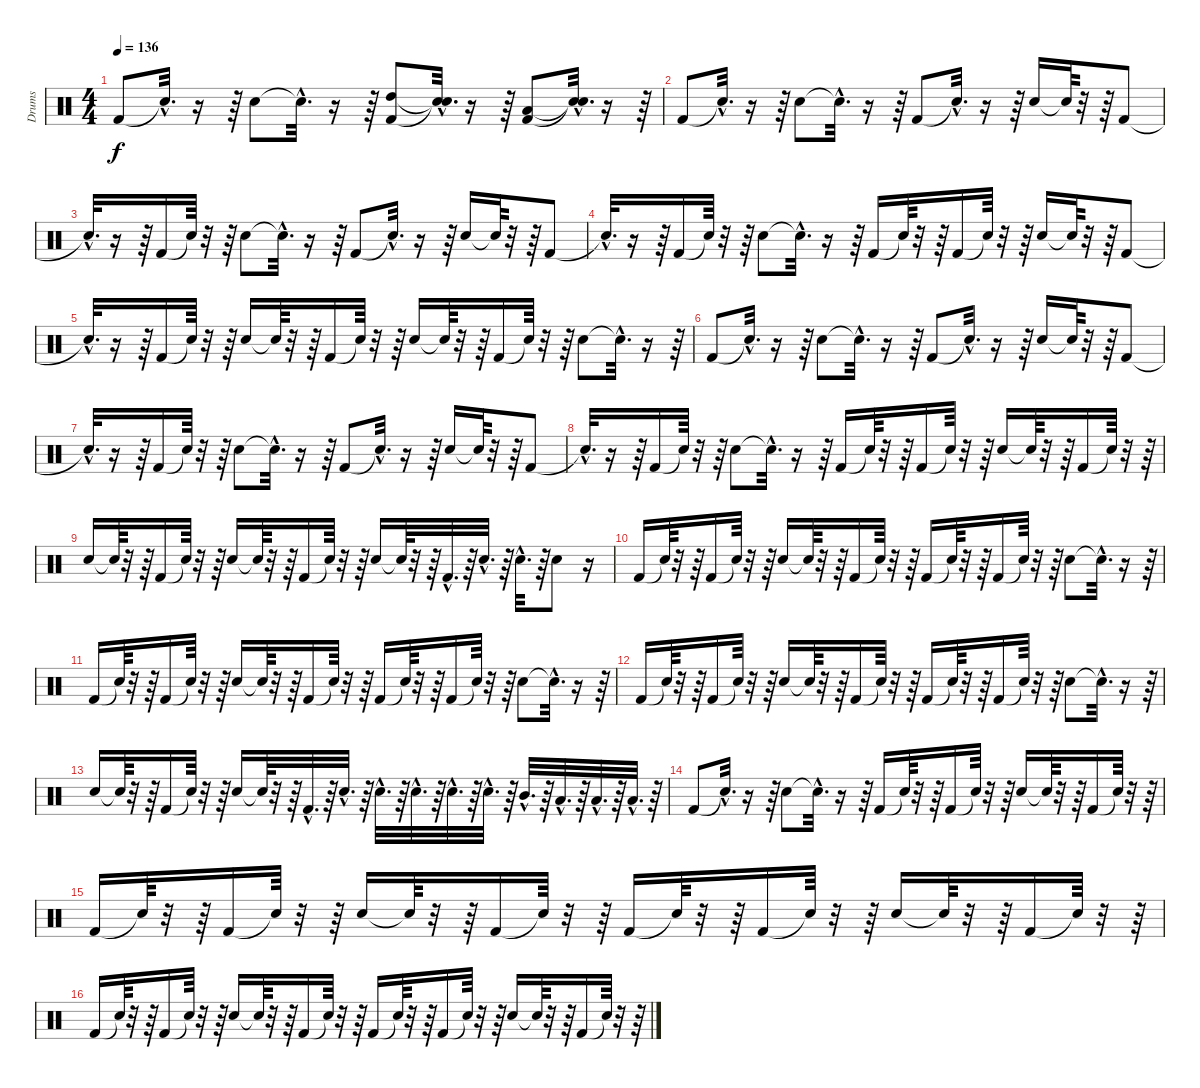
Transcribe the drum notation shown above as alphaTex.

\track ("Drums" "Drums") {instrument percussion}
\staff {score}
\articulation defaults
\ts (4 4)
\tempo 136
\clef neutral
\ks c "Kick (hit) 2".8{dy f} "Snare (hit)"{hac t}.32{d}
r.16 r.64 "Snare (hit) 2".8 "Snare (hit)"{hac t}.32{d} r.16 r.64 ("Kick (hit) 2" "High Tom (hit)").8 ("Snare (hit)"{hac t} "Snare (hit)"{hac t}).32{d} r.16 r.64 ("Kick (hit) 2" "Low Tom (hit)").8 ("Snare (hit)"{hac t} "Snare (hit)"{hac t}).32{d} r.16 r.64 |
"Kick (hit) 2".8 "Snare (hit)"{hac t}.32{d} r.16 r.64 "Snare (hit) 2".8 "Snare (hit)"{hac t}.32{d} r.16 r.64 "Kick (hit) 2".8 "Snare (hit)"{hac t}.32{d} r.16 r.64 "Snare (hit) 2".16 "Snare (hit)"{t}.64 r.32 r.64 "Kick (hit) 2".8 |
"Snare (hit)"{hac t}.32{d} r.16 r.64 "Kick (hit) 2".16 "Snare (hit)"{t}.64 r.32 r.64 "Snare (hit) 2".8 "Snare (hit)"{hac t}.32{d} r.16 r.64 "Kick (hit) 2".8 "Snare (hit)"{hac t}.32{d} r.16 r.64 "Snare (hit) 2".16 "Snare (hit)"{t}.64 r.32 r.64 "Kick (hit) 2".8 |
"Snare (hit)"{hac t}.32{d} r.16 r.64 "Kick (hit) 2".16 "Snare (hit)"{t}.64 r.32 r.64 "Snare (hit) 2".8 "Snare (hit)"{hac t}.32{d} r.16 r.64 "Kick (hit) 2".16 "Snare (hit)"{t}.64 r.32 r.64 "Kick (hit) 2".16 "Snare (hit)"{t}.64 r.32 r.64 "Snare (hit) 2".16 "Snare (hit)"{t}.64 r.32 r.64 "Kick (hit) 2".8 |
"Snare (hit)"{hac t}.32{d} r.16 r.64 "Kick (hit) 2".16 "Snare (hit)"{t}.64 r.32 r.64 "Snare (hit) 2".16 "Snare (hit)"{t}.64 r.32 r.64 "Kick (hit) 2".16 "Snare (hit)"{t}.64 r.32 r.64 "Snare (hit) 2".16 "Snare (hit)"{t}.64 r.32 r.64 "Kick (hit) 2".16 "Snare (hit)"{t}.64 r.32 r.64 "Snare (hit) 2".8 "Snare (hit)"{hac t}.32{d} r.16 r.64 |
"Kick (hit) 2".8 "Snare (hit)"{hac t}.32{d} r.16 r.64 "Snare (hit) 2".8 "Snare (hit)"{hac t}.32{d} r.16 r.64 "Kick (hit) 2".8 "Snare (hit)"{hac t}.32{d} r.16 r.64 "Snare (hit) 2".16 "Snare (hit)"{t}.64 r.32 r.64 "Kick (hit) 2".8 |
"Snare (hit)"{hac t}.32{d} r.16 r.64 "Kick (hit) 2".16 "Snare (hit)"{t}.64 r.32 r.64 "Snare (hit) 2".8 "Snare (hit)"{hac t}.32{d} r.16 r.64 "Kick (hit) 2".8 "Snare (hit)"{hac t}.32{d} r.16 r.64 "Snare (hit) 2".16 "Snare (hit)"{t}.64 r.32 r.64 "Kick (hit) 2".8 |
"Snare (hit)"{hac t}.32{d} r.16 r.64 "Kick (hit) 2".16 "Snare (hit)"{t}.64 r.32 r.64 "Snare (hit) 2".8 "Snare (hit)"{hac t}.32{d} r.16 r.64 "Kick (hit) 2".16 "Snare (hit)"{t}.64 r.32 r.64 "Kick (hit) 2".16 "Snare (hit)"{t}.64 r.32 r.64 "Snare (hit) 2".16 "Snare (hit)"{t}.64 r.32 r.64 "Kick (hit) 2".16 "Snare (hit)"{t}.64 r.32 r.64 |
"Electric Snare (hit)".16 "Snare (hit)"{t}.64 r.32 r.64 "Kick (hit) 2".16 "Snare (hit)"{t}.64 r.32 r.64 "Snare (hit) 2".16 "Snare (hit)"{t}.64 r.32 r.64 "Kick (hit) 2".16 "Snare (hit)"{t}.64 r.32 r.64 "Snare (hit) 2".16 "Snare (hit)"{t}.64 r.32 r.64 "Kick (hit) 2"{hac}.32{d} r.64 "Snare (hit) 2"{hac}.32{d} r.64 "Snare (hit) 2"{hac}.32{d} r.64 "Snare (hit) 2".8 r.16 |
"Kick (hit) 2".16 "Snare (hit)"{t}.64 r.32 r.64 "Kick (hit) 2".16 "Snare (hit)"{t}.64 r.32 r.64 "Snare (hit) 2".16 "Snare (hit)"{t}.64 r.32 r.64 "Kick (hit) 2".16 "Snare (hit)"{t}.64 r.32 r.64 "Kick (hit) 2".16 "Snare (hit)"{t}.64 r.32 r.64 "Kick (hit) 2".16 "Snare (hit)"{t}.64 r.32 r.64 "Snare (hit) 2".8 "Snare (hit)"{hac t}.32{d} r.16 r.64 |
"Kick (hit) 2".16 "Snare (hit)"{t}.64 r.32 r.64 "Kick (hit) 2".16 "Snare (hit)"{t}.64 r.32 r.64 "Snare (hit) 2".16 "Snare (hit)"{t}.64 r.32 r.64 "Kick (hit) 2".16 "Snare (hit)"{t}.64 r.32 r.64 "Kick (hit) 2".16 "Snare (hit)"{t}.64 r.32 r.64 "Kick (hit) 2".16 "Snare (hit)"{t}.64 r.32 r.64 "Snare (hit) 2".8 "Snare (hit)"{hac t}.32{d} r.16 r.64 |
"Kick (hit) 2".16 "Snare (hit)"{t}.64 r.32 r.64 "Kick (hit) 2".16 "Snare (hit)"{t}.64 r.32 r.64 "Snare (hit) 2".16 "Snare (hit)"{t}.64 r.32 r.64 "Kick (hit) 2".16 "Snare (hit)"{t}.64 r.32 r.64 "Kick (hit) 2".16 "Snare (hit)"{t}.64 r.32 r.64 "Kick (hit) 2".16 "Snare (hit)"{t}.64 r.32 r.64 "Snare (hit) 2".8 "Snare (hit)"{hac t}.32{d} r.16 r.64 |
"Snare (hit) 2".16 "Snare (hit)"{t}.64 r.32 r.64 "Kick (hit) 2".16 "Snare (hit)"{t}.64 r.32 r.64 "Snare (hit) 2".16 "Snare (hit)"{t}.64 r.32 r.64 "Kick (hit) 2"{hac}.32{d} r.64 "Snare (hit) 2"{hac}.32{d} r.64 "Snare (hit) 2"{hac}.32{d} r.64 "Snare (hit) 2"{hac}.32{d} r.64 "Snare (hit) 2"{hac}.32{d} r.64 "Snare (hit) 2"{hac}.32{d} r.64 "Mid Tom (hit)"{hac}.32{d} r.64 "Low Tom (hit)"{hac}.32{d} r.64 "Low Floor Tom (hit)"{hac}.32{d} r.64 "Low Floor Tom (hit)"{hac}.32{d} r.64 |
"Kick (hit) 2".8 "Snare (hit)"{hac t}.32{d} r.16 r.64 "Snare (hit) 2".8 "Snare (hit)"{hac t}.32{d} r.16 r.64 "Kick (hit) 2".16 "Snare (hit)"{t}.64 r.32 r.64 "Kick (hit) 2".16 "Snare (hit)"{t}.64 r.32 r.64 "Snare (hit) 2".16 "Snare (hit)"{t}.64 r.32 r.64 "Kick (hit) 2".16 "Snare (hit)"{t}.64 r.32 r.64 |
"Kick (hit) 2".16 "Snare (hit)"{t}.64 r.32 r.64 "Kick (hit) 2".16 "Snare (hit)"{t}.64 r.32 r.64 "Snare (hit) 2".16 "Snare (hit)"{t}.64 r.32 r.64 "Kick (hit) 2".16 "Snare (hit)"{t}.64 r.32 r.64 "Kick (hit) 2".16 "Snare (hit)"{t}.64 r.32 r.64 "Kick (hit) 2".16 "Snare (hit)"{t}.64 r.32 r.64 "Snare (hit) 2".16 "Snare (hit)"{t}.64 r.32 r.64 "Kick (hit) 2".16 "Snare (hit)"{t}.64 r.32 r.64 |
"Kick (hit) 2".16 "Snare (hit)"{t}.64 r.32 r.64 "Kick (hit) 2".16 "Snare (hit)"{t}.64 r.32 r.64 "Snare (hit) 2".16 "Snare (hit)"{t}.64 r.32 r.64 "Kick (hit) 2".16 "Snare (hit)"{t}.64 r.32 r.64 "Kick (hit) 2".16 "Snare (hit)"{t}.64 r.32 r.64 "Kick (hit) 2".16 "Snare (hit)"{t}.64 r.32 r.64 "Snare (hit) 2".16 "Snare (hit)"{t}.64 r.32 r.64 "Kick (hit) 2".16 "Snare (hit)"{t}.64 r.32 r.64
